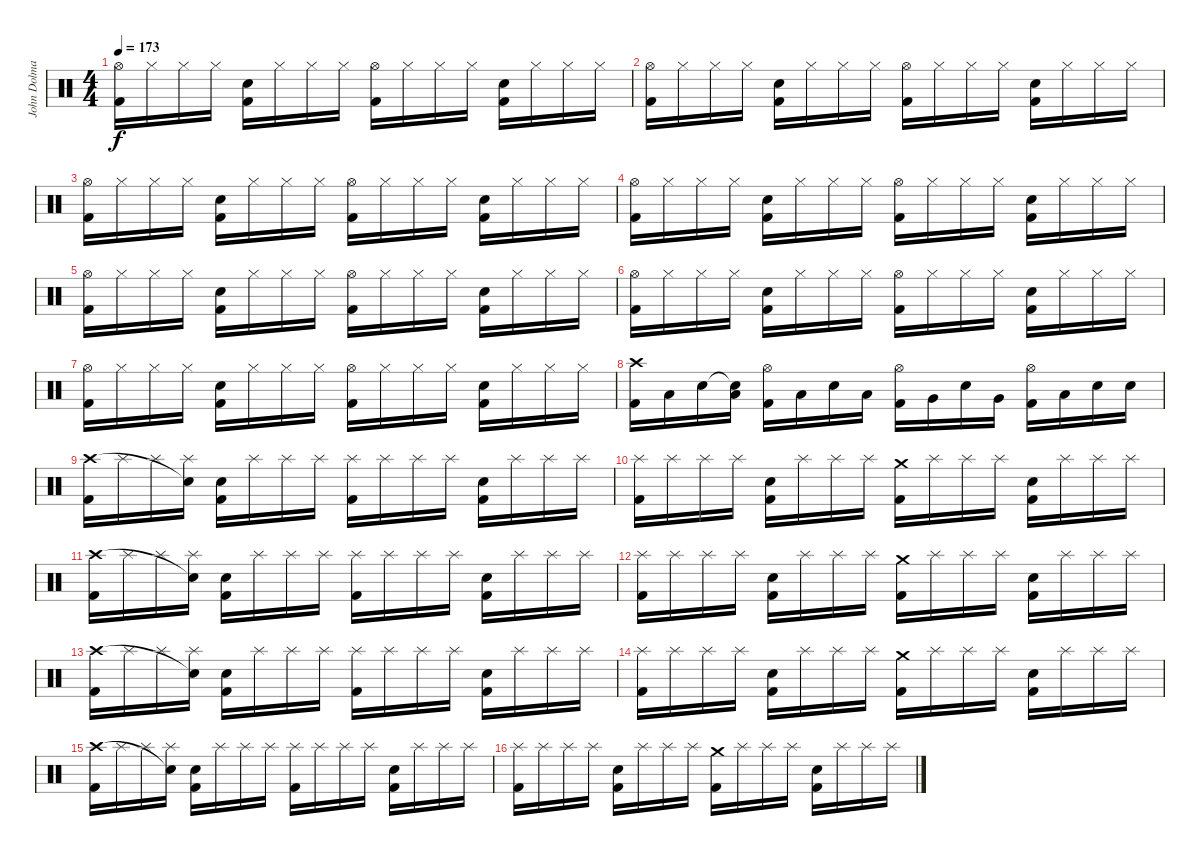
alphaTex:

\track ("John Dolmayan" "John Dolma") {instrument percussion}
\staff {score}
\articulation defaults
\ts (4 4)
\tempo 173
\clef neutral
\ks c
("Kick (hit) 2" "Hi-Hat (open)").16{dy f} "Hi-Hat (closed)".16 "Hi-Hat (closed)".16 "Hi-Hat (closed)".16 ("Kick (hit) 2" "Electric Snare (hit)").16 "Hi-Hat (closed)".16 "Hi-Hat (closed)".16 "Hi-Hat (closed)".16 ("Kick (hit) 2" "Hi-Hat (open)").16 "Hi-Hat (closed)".16 "Hi-Hat (closed)".16 "Hi-Hat (closed)".16 ("Kick (hit) 2" "Electric Snare (hit)").16 "Hi-Hat (closed)".16 "Hi-Hat (closed)".16 "Hi-Hat (closed)".16 |
("Kick (hit) 2" "Hi-Hat (open)").16 "Hi-Hat (closed)".16 "Hi-Hat (closed)".16 "Hi-Hat (closed)".16 ("Kick (hit) 2" "Electric Snare (hit)").16 "Hi-Hat (closed)".16 "Hi-Hat (closed)".16 "Hi-Hat (closed)".16 ("Kick (hit) 2" "Hi-Hat (open)").16 "Hi-Hat (closed)".16 "Hi-Hat (closed)".16 "Hi-Hat (closed)".16 ("Kick (hit) 2" "Electric Snare (hit)").16 "Hi-Hat (closed)".16 "Hi-Hat (closed)".16 "Hi-Hat (closed)".16 |
("Kick (hit) 2" "Hi-Hat (open)").16 "Hi-Hat (closed)".16 "Hi-Hat (closed)".16 "Hi-Hat (closed)".16 ("Kick (hit) 2" "Electric Snare (hit)").16 "Hi-Hat (closed)".16 "Hi-Hat (closed)".16 "Hi-Hat (closed)".16 ("Kick (hit) 2" "Hi-Hat (open)").16 "Hi-Hat (closed)".16 "Hi-Hat (closed)".16 "Hi-Hat (closed)".16 ("Kick (hit) 2" "Electric Snare (hit)").16 "Hi-Hat (closed)".16 "Hi-Hat (closed)".16 "Hi-Hat (closed)".16 |
("Kick (hit) 2" "Hi-Hat (open)").16 "Hi-Hat (closed)".16 "Hi-Hat (closed)".16 "Hi-Hat (closed)".16 ("Kick (hit) 2" "Electric Snare (hit)").16 "Hi-Hat (closed)".16 "Hi-Hat (closed)".16 "Hi-Hat (closed)".16 ("Kick (hit) 2" "Hi-Hat (open)").16 "Hi-Hat (closed)".16 "Hi-Hat (closed)".16 "Hi-Hat (closed)".16 ("Kick (hit) 2" "Electric Snare (hit)").16 "Hi-Hat (closed)".16 "Hi-Hat (closed)".16 "Hi-Hat (closed)".16 |
("Kick (hit) 2" "Hi-Hat (open)").16 "Hi-Hat (closed)".16 "Hi-Hat (closed)".16 "Hi-Hat (closed)".16 ("Kick (hit) 2" "Electric Snare (hit)").16 "Hi-Hat (closed)".16 "Hi-Hat (closed)".16 "Hi-Hat (closed)".16 ("Kick (hit) 2" "Hi-Hat (open)").16 "Hi-Hat (closed)".16 "Hi-Hat (closed)".16 "Hi-Hat (closed)".16 ("Kick (hit) 2" "Electric Snare (hit)").16 "Hi-Hat (closed)".16 "Hi-Hat (closed)".16 "Hi-Hat (closed)".16 |
("Kick (hit) 2" "Hi-Hat (open)").16 "Hi-Hat (closed)".16 "Hi-Hat (closed)".16 "Hi-Hat (closed)".16 ("Kick (hit) 2" "Electric Snare (hit)").16 "Hi-Hat (closed)".16 "Hi-Hat (closed)".16 "Hi-Hat (closed)".16 ("Kick (hit) 2" "Hi-Hat (open)").16 "Hi-Hat (closed)".16 "Hi-Hat (closed)".16 "Hi-Hat (closed)".16 ("Kick (hit) 2" "Electric Snare (hit)").16 "Hi-Hat (closed)".16 "Hi-Hat (closed)".16 "Hi-Hat (closed)".16 |
("Kick (hit) 2" "Hi-Hat (open)").16 "Hi-Hat (closed)".16 "Hi-Hat (closed)".16 "Hi-Hat (closed)".16 ("Kick (hit) 2" "Electric Snare (hit)").16 "Hi-Hat (closed)".16 "Hi-Hat (closed)".16 "Hi-Hat (closed)".16 ("Kick (hit) 2" "Hi-Hat (open)").16 "Hi-Hat (closed)".16 "Hi-Hat (closed)".16 "Hi-Hat (closed)".16 ("Kick (hit) 2" "Electric Snare (hit)").16 "Hi-Hat (closed)".16 "Hi-Hat (closed)".16 "Hi-Hat (closed)".16 |
("Crash high (hit)" "Kick (hit) 2").16 "Low Tom (hit)".16 "Electric Snare (hit)".16 ("Snare (hit)"{t} "Low Tom (hit)").16 ("Hi-Hat (open)" "Kick (hit) 2").16 "Low Tom (hit)".16 "Electric Snare (hit)".16 "Low Tom (hit)".16 ("Hi-Hat (open)" "Kick (hit) 2").16 "Very Low Tom (hit)".16 "Electric Snare (hit)".16 "Very Low Tom (hit)".16 ("Hi-Hat (open)" "Kick (hit) 2").16 "Low Floor Tom (hit)".16 "Electric Snare (hit)".16 "Electric Snare (hit)".16 |
("Kick (hit) 2" "Crash high (hit)").16 "Splash (hit)".16 "Splash (hit)".16 ("Splash (hit)" "Snare (hit)"{t}).16 ("Electric Snare (hit)" "Kick (hit) 2").16 "Splash (hit)".16 "Splash (hit)".16 "Splash (hit)".16 ("Kick (hit) 2" "Splash (hit)").16 "Splash (hit)".16 "Splash (hit)".16 "Splash (hit)".16 ("Electric Snare (hit)" "Kick (hit) 2").16 "Splash (hit)".16 "Splash (hit)".16 "Splash (hit)".16 |
("Kick (hit) 2" "Splash (hit)").16 "Splash (hit)".16 "Splash (hit)".16 "Splash (hit)".16 ("Electric Snare (hit)" "Kick (hit) 2").16 "Splash (hit)".16 "Splash (hit)".16 "Splash (hit)".16 ("Kick (hit) 2" "Crash medium (hit)").16 "Splash (hit)".16 "Splash (hit)".16 "Splash (hit)".16 ("Electric Snare (hit)" "Kick (hit) 2").16 "Splash (hit)".16 "Splash (hit)".16 "Splash (hit)".16 |
("Kick (hit) 2" "Crash high (hit)").16 "Splash (hit)".16 "Splash (hit)".16 ("Splash (hit)" "Snare (hit)"{t}).16 ("Electric Snare (hit)" "Kick (hit) 2").16 "Splash (hit)".16 "Splash (hit)".16 "Splash (hit)".16 ("Kick (hit) 2" "Splash (hit)").16 "Splash (hit)".16 "Splash (hit)".16 "Splash (hit)".16 ("Electric Snare (hit)" "Kick (hit) 2").16 "Splash (hit)".16 "Splash (hit)".16 "Splash (hit)".16 |
("Kick (hit) 2" "Splash (hit)").16 "Splash (hit)".16 "Splash (hit)".16 "Splash (hit)".16 ("Electric Snare (hit)" "Kick (hit) 2").16 "Splash (hit)".16 "Splash (hit)".16 "Splash (hit)".16 ("Kick (hit) 2" "Crash medium (hit)").16 "Splash (hit)".16 "Splash (hit)".16 "Splash (hit)".16 ("Electric Snare (hit)" "Kick (hit) 2").16 "Splash (hit)".16 "Splash (hit)".16 "Splash (hit)".16 |
("Kick (hit) 2" "Crash high (hit)").16 "Splash (hit)".16 "Splash (hit)".16 ("Splash (hit)" "Snare (hit)"{t}).16 ("Electric Snare (hit)" "Kick (hit) 2").16 "Splash (hit)".16 "Splash (hit)".16 "Splash (hit)".16 ("Kick (hit) 2" "Splash (hit)").16 "Splash (hit)".16 "Splash (hit)".16 "Splash (hit)".16 ("Electric Snare (hit)" "Kick (hit) 2").16 "Splash (hit)".16 "Splash (hit)".16 "Splash (hit)".16 |
("Kick (hit) 2" "Splash (hit)").16 "Splash (hit)".16 "Splash (hit)".16 "Splash (hit)".16 ("Electric Snare (hit)" "Kick (hit) 2").16 "Splash (hit)".16 "Splash (hit)".16 "Splash (hit)".16 ("Kick (hit) 2" "Crash medium (hit)").16 "Splash (hit)".16 "Splash (hit)".16 "Splash (hit)".16 ("Electric Snare (hit)" "Kick (hit) 2").16 "Splash (hit)".16 "Splash (hit)".16 "Splash (hit)".16 |
("Kick (hit) 2" "Crash high (hit)").16 "Splash (hit)".16 "Splash (hit)".16 ("Splash (hit)" "Snare (hit)"{t}).16 ("Electric Snare (hit)" "Kick (hit) 2").16 "Splash (hit)".16 "Splash (hit)".16 "Splash (hit)".16 ("Kick (hit) 2" "Splash (hit)").16 "Splash (hit)".16 "Splash (hit)".16 "Splash (hit)".16 ("Electric Snare (hit)" "Kick (hit) 2").16 "Splash (hit)".16 "Splash (hit)".16 "Splash (hit)".16 |
("Kick (hit) 2" "Splash (hit)").16 "Splash (hit)".16 "Splash (hit)".16 "Splash (hit)".16 ("Electric Snare (hit)" "Kick (hit) 2").16 "Splash (hit)".16 "Splash (hit)".16 "Splash (hit)".16 ("Kick (hit) 2" "Crash medium (hit)").16 "Splash (hit)".16 "Splash (hit)".16 "Splash (hit)".16 ("Electric Snare (hit)" "Kick (hit) 2").16 "Splash (hit)".16 "Splash (hit)".16 "Splash (hit)".16
